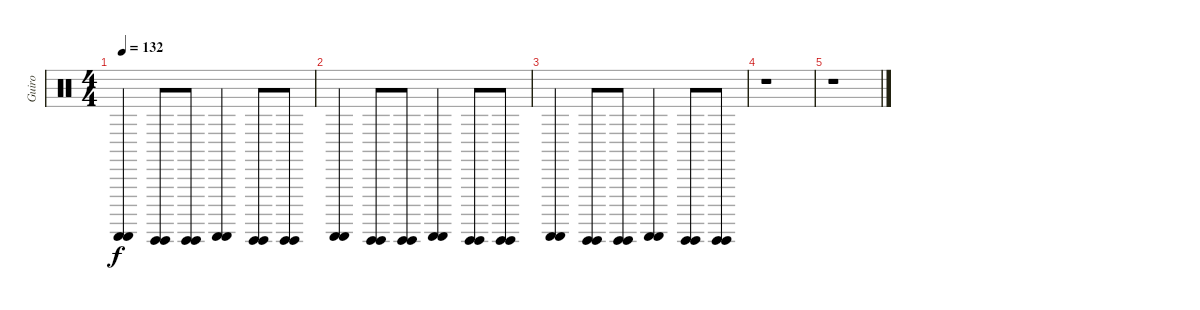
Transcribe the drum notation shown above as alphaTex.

\track ("Guiro" "Guiro") {instrument percussion}
\staff {score}
\articulation defaults
\ts (4 4)
\tempo 132
\clef neutral
\ks c
("Guiro (scrap-return)" "Guiro (scrap-return)").4{dy f} ("Guiro (hit)" "Guiro (hit)").8 ("Guiro (hit)" "Guiro (hit)").8 ("Guiro (scrap-return)" "Guiro (scrap-return)").4 ("Guiro (hit)" "Guiro (hit)").8 ("Guiro (hit)" "Guiro (hit)").8 |
("Guiro (scrap-return)" "Guiro (scrap-return)").4 ("Guiro (hit)" "Guiro (hit)").8 ("Guiro (hit)" "Guiro (hit)").8 ("Guiro (scrap-return)" "Guiro (scrap-return)").4 ("Guiro (hit)" "Guiro (hit)").8 ("Guiro (hit)" "Guiro (hit)").8 |
("Guiro (scrap-return)" "Guiro (scrap-return)").4 ("Guiro (hit)" "Guiro (hit)").8 ("Guiro (hit)" "Guiro (hit)").8 ("Guiro (scrap-return)" "Guiro (scrap-return)").4 ("Guiro (hit)" "Guiro (hit)").8 ("Guiro (hit)" "Guiro (hit)").8 |
r.1 |
r.1
